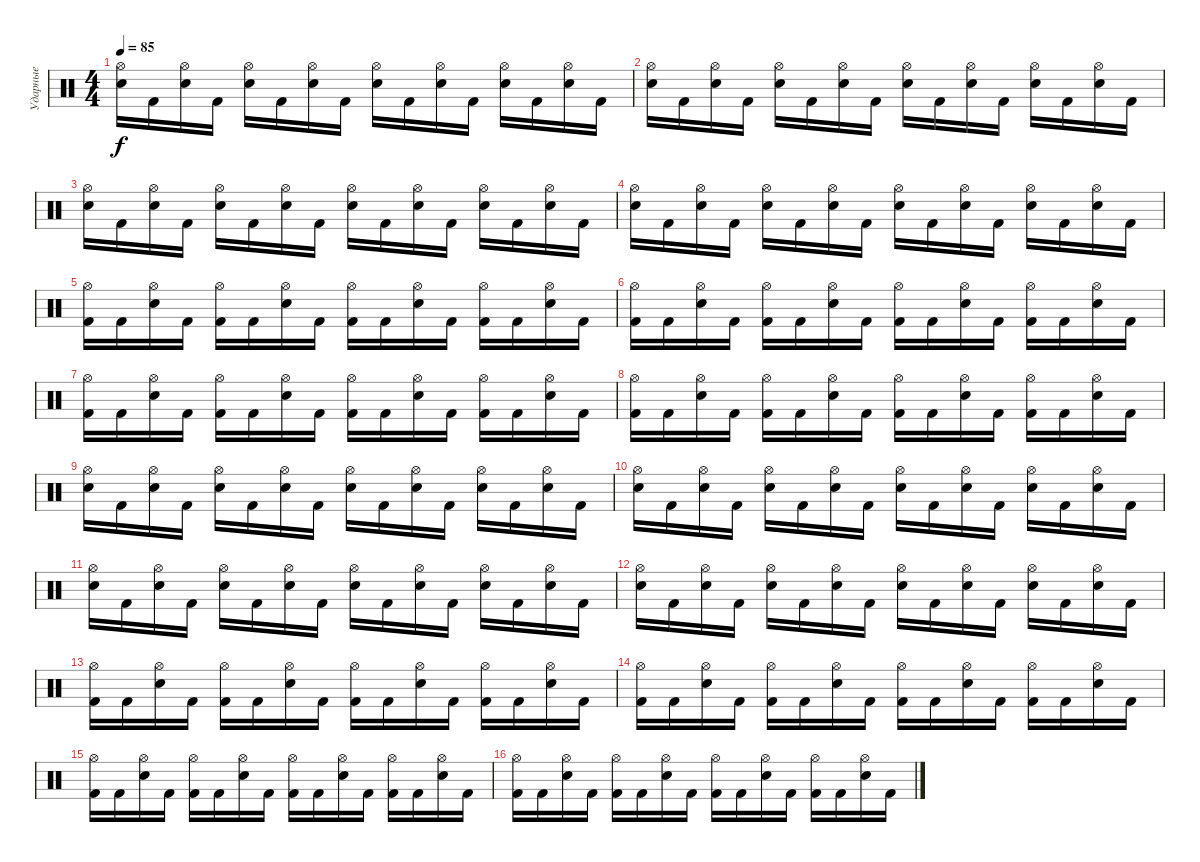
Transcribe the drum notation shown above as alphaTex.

\track ("Ударные" "Ударные") {instrument percussion}
\staff {score}
\articulation defaults
\ts (4 4)
\tempo 85
\clef neutral
\ks c
("Hi-Hat (open)" "Electric Snare (hit)").16{dy f} "Kick (hit) 2".16 ("Hi-Hat (open)" "Electric Snare (hit)").16 "Kick (hit) 2".16 ("Hi-Hat (open)" "Electric Snare (hit)").16 "Kick (hit) 2".16 ("Hi-Hat (open)" "Electric Snare (hit)").16 "Kick (hit) 2".16 ("Hi-Hat (open)" "Electric Snare (hit)").16 "Kick (hit) 2".16 ("Hi-Hat (open)" "Electric Snare (hit)").16 "Kick (hit) 2".16 ("Hi-Hat (open)" "Electric Snare (hit)").16 "Kick (hit) 2".16 ("Hi-Hat (open)" "Electric Snare (hit)").16 "Kick (hit) 2".16 |
("Hi-Hat (open)" "Electric Snare (hit)").16 "Kick (hit) 2".16 ("Hi-Hat (open)" "Electric Snare (hit)").16 "Kick (hit) 2".16 ("Hi-Hat (open)" "Electric Snare (hit)").16 "Kick (hit) 2".16 ("Hi-Hat (open)" "Electric Snare (hit)").16 "Kick (hit) 2".16 ("Hi-Hat (open)" "Electric Snare (hit)").16 "Kick (hit) 2".16 ("Hi-Hat (open)" "Electric Snare (hit)").16 "Kick (hit) 2".16 ("Hi-Hat (open)" "Electric Snare (hit)").16 "Kick (hit) 2".16 ("Hi-Hat (open)" "Electric Snare (hit)").16 "Kick (hit) 2".16 |
("Hi-Hat (open)" "Electric Snare (hit)").16 "Kick (hit) 2".16 ("Hi-Hat (open)" "Electric Snare (hit)").16 "Kick (hit) 2".16 ("Hi-Hat (open)" "Electric Snare (hit)").16 "Kick (hit) 2".16 ("Hi-Hat (open)" "Electric Snare (hit)").16 "Kick (hit) 2".16 ("Hi-Hat (open)" "Electric Snare (hit)").16 "Kick (hit) 2".16 ("Hi-Hat (open)" "Electric Snare (hit)").16 "Kick (hit) 2".16 ("Hi-Hat (open)" "Electric Snare (hit)").16 "Kick (hit) 2".16 ("Hi-Hat (open)" "Electric Snare (hit)").16 "Kick (hit) 2".16 |
("Hi-Hat (open)" "Electric Snare (hit)").16 "Kick (hit) 2".16 ("Hi-Hat (open)" "Electric Snare (hit)").16 "Kick (hit) 2".16 ("Hi-Hat (open)" "Electric Snare (hit)").16 "Kick (hit) 2".16 ("Hi-Hat (open)" "Electric Snare (hit)").16 "Kick (hit) 2".16 ("Hi-Hat (open)" "Electric Snare (hit)").16 "Kick (hit) 2".16 ("Hi-Hat (open)" "Electric Snare (hit)").16 "Kick (hit) 2".16 ("Hi-Hat (open)" "Electric Snare (hit)").16 "Kick (hit) 2".16 ("Hi-Hat (open)" "Electric Snare (hit)").16 "Kick (hit) 2".16 |
("Hi-Hat (open)" "Kick (hit) 2").16 "Kick (hit) 2".16 ("Hi-Hat (open)" "Electric Snare (hit)").16 "Kick (hit) 2".16 ("Hi-Hat (open)" "Kick (hit) 2").16 "Kick (hit) 2".16 ("Hi-Hat (open)" "Electric Snare (hit)").16 "Kick (hit) 2".16 ("Hi-Hat (open)" "Kick (hit) 2").16 "Kick (hit) 2".16 ("Hi-Hat (open)" "Electric Snare (hit)").16 "Kick (hit) 2".16 ("Hi-Hat (open)" "Kick (hit) 2").16 "Kick (hit) 2".16 ("Hi-Hat (open)" "Electric Snare (hit)").16 "Kick (hit) 2".16 |
("Hi-Hat (open)" "Kick (hit) 2").16 "Kick (hit) 2".16 ("Hi-Hat (open)" "Electric Snare (hit)").16 "Kick (hit) 2".16 ("Hi-Hat (open)" "Kick (hit) 2").16 "Kick (hit) 2".16 ("Hi-Hat (open)" "Electric Snare (hit)").16 "Kick (hit) 2".16 ("Hi-Hat (open)" "Kick (hit) 2").16 "Kick (hit) 2".16 ("Hi-Hat (open)" "Electric Snare (hit)").16 "Kick (hit) 2".16 ("Hi-Hat (open)" "Kick (hit) 2").16 "Kick (hit) 2".16 ("Hi-Hat (open)" "Electric Snare (hit)").16 "Kick (hit) 2".16 |
("Hi-Hat (open)" "Kick (hit) 2").16 "Kick (hit) 2".16 ("Hi-Hat (open)" "Electric Snare (hit)").16 "Kick (hit) 2".16 ("Hi-Hat (open)" "Kick (hit) 2").16 "Kick (hit) 2".16 ("Hi-Hat (open)" "Electric Snare (hit)").16 "Kick (hit) 2".16 ("Hi-Hat (open)" "Kick (hit) 2").16 "Kick (hit) 2".16 ("Hi-Hat (open)" "Electric Snare (hit)").16 "Kick (hit) 2".16 ("Hi-Hat (open)" "Kick (hit) 2").16 "Kick (hit) 2".16 ("Hi-Hat (open)" "Electric Snare (hit)").16 "Kick (hit) 2".16 |
("Hi-Hat (open)" "Kick (hit) 2").16 "Kick (hit) 2".16 ("Hi-Hat (open)" "Electric Snare (hit)").16 "Kick (hit) 2".16 ("Hi-Hat (open)" "Kick (hit) 2").16 "Kick (hit) 2".16 ("Hi-Hat (open)" "Electric Snare (hit)").16 "Kick (hit) 2".16 ("Hi-Hat (open)" "Kick (hit) 2").16 "Kick (hit) 2".16 ("Hi-Hat (open)" "Electric Snare (hit)").16 "Kick (hit) 2".16 ("Hi-Hat (open)" "Kick (hit) 2").16 "Kick (hit) 2".16 ("Hi-Hat (open)" "Electric Snare (hit)").16 "Kick (hit) 2".16 |
("Hi-Hat (open)" "Electric Snare (hit)").16 "Kick (hit) 2".16 ("Hi-Hat (open)" "Electric Snare (hit)").16 "Kick (hit) 2".16 ("Hi-Hat (open)" "Electric Snare (hit)").16 "Kick (hit) 2".16 ("Hi-Hat (open)" "Electric Snare (hit)").16 "Kick (hit) 2".16 ("Hi-Hat (open)" "Electric Snare (hit)").16 "Kick (hit) 2".16 ("Hi-Hat (open)" "Electric Snare (hit)").16 "Kick (hit) 2".16 ("Hi-Hat (open)" "Electric Snare (hit)").16 "Kick (hit) 2".16 ("Hi-Hat (open)" "Electric Snare (hit)").16 "Kick (hit) 2".16 |
("Hi-Hat (open)" "Electric Snare (hit)").16 "Kick (hit) 2".16 ("Hi-Hat (open)" "Electric Snare (hit)").16 "Kick (hit) 2".16 ("Hi-Hat (open)" "Electric Snare (hit)").16 "Kick (hit) 2".16 ("Hi-Hat (open)" "Electric Snare (hit)").16 "Kick (hit) 2".16 ("Hi-Hat (open)" "Electric Snare (hit)").16 "Kick (hit) 2".16 ("Hi-Hat (open)" "Electric Snare (hit)").16 "Kick (hit) 2".16 ("Hi-Hat (open)" "Electric Snare (hit)").16 "Kick (hit) 2".16 ("Hi-Hat (open)" "Electric Snare (hit)").16 "Kick (hit) 2".16 |
("Hi-Hat (open)" "Electric Snare (hit)").16 "Kick (hit) 2".16 ("Hi-Hat (open)" "Electric Snare (hit)").16 "Kick (hit) 2".16 ("Hi-Hat (open)" "Electric Snare (hit)").16 "Kick (hit) 2".16 ("Hi-Hat (open)" "Electric Snare (hit)").16 "Kick (hit) 2".16 ("Hi-Hat (open)" "Electric Snare (hit)").16 "Kick (hit) 2".16 ("Hi-Hat (open)" "Electric Snare (hit)").16 "Kick (hit) 2".16 ("Hi-Hat (open)" "Electric Snare (hit)").16 "Kick (hit) 2".16 ("Hi-Hat (open)" "Electric Snare (hit)").16 "Kick (hit) 2".16 |
("Hi-Hat (open)" "Electric Snare (hit)").16 "Kick (hit) 2".16 ("Hi-Hat (open)" "Electric Snare (hit)").16 "Kick (hit) 2".16 ("Hi-Hat (open)" "Electric Snare (hit)").16 "Kick (hit) 2".16 ("Hi-Hat (open)" "Electric Snare (hit)").16 "Kick (hit) 2".16 ("Hi-Hat (open)" "Electric Snare (hit)").16 "Kick (hit) 2".16 ("Hi-Hat (open)" "Electric Snare (hit)").16 "Kick (hit) 2".16 ("Hi-Hat (open)" "Electric Snare (hit)").16 "Kick (hit) 2".16 ("Hi-Hat (open)" "Electric Snare (hit)").16 "Kick (hit) 2".16 |
("Hi-Hat (open)" "Kick (hit) 2").16 "Kick (hit) 2".16 ("Hi-Hat (open)" "Electric Snare (hit)").16 "Kick (hit) 2".16 ("Hi-Hat (open)" "Kick (hit) 2").16 "Kick (hit) 2".16 ("Hi-Hat (open)" "Electric Snare (hit)").16 "Kick (hit) 2".16 ("Hi-Hat (open)" "Kick (hit) 2").16 "Kick (hit) 2".16 ("Hi-Hat (open)" "Electric Snare (hit)").16 "Kick (hit) 2".16 ("Hi-Hat (open)" "Kick (hit) 2").16 "Kick (hit) 2".16 ("Hi-Hat (open)" "Electric Snare (hit)").16 "Kick (hit) 2".16 |
("Hi-Hat (open)" "Kick (hit) 2").16 "Kick (hit) 2".16 ("Hi-Hat (open)" "Electric Snare (hit)").16 "Kick (hit) 2".16 ("Hi-Hat (open)" "Kick (hit) 2").16 "Kick (hit) 2".16 ("Hi-Hat (open)" "Electric Snare (hit)").16 "Kick (hit) 2".16 ("Hi-Hat (open)" "Kick (hit) 2").16 "Kick (hit) 2".16 ("Hi-Hat (open)" "Electric Snare (hit)").16 "Kick (hit) 2".16 ("Hi-Hat (open)" "Kick (hit) 2").16 "Kick (hit) 2".16 ("Hi-Hat (open)" "Electric Snare (hit)").16 "Kick (hit) 2".16 |
("Hi-Hat (open)" "Kick (hit) 2").16 "Kick (hit) 2".16 ("Hi-Hat (open)" "Electric Snare (hit)").16 "Kick (hit) 2".16 ("Hi-Hat (open)" "Kick (hit) 2").16 "Kick (hit) 2".16 ("Hi-Hat (open)" "Electric Snare (hit)").16 "Kick (hit) 2".16 ("Hi-Hat (open)" "Kick (hit) 2").16 "Kick (hit) 2".16 ("Hi-Hat (open)" "Electric Snare (hit)").16 "Kick (hit) 2".16 ("Hi-Hat (open)" "Kick (hit) 2").16 "Kick (hit) 2".16 ("Hi-Hat (open)" "Electric Snare (hit)").16 "Kick (hit) 2".16 |
("Hi-Hat (open)" "Kick (hit) 2").16 "Kick (hit) 2".16 ("Hi-Hat (open)" "Electric Snare (hit)").16 "Kick (hit) 2".16 ("Hi-Hat (open)" "Kick (hit) 2").16 "Kick (hit) 2".16 ("Hi-Hat (open)" "Electric Snare (hit)").16 "Kick (hit) 2".16 ("Hi-Hat (open)" "Kick (hit) 2").16 "Kick (hit) 2".16 ("Hi-Hat (open)" "Electric Snare (hit)").16 "Kick (hit) 2".16 ("Hi-Hat (open)" "Kick (hit) 2").16 "Kick (hit) 2".16 ("Hi-Hat (open)" "Electric Snare (hit)").16 "Kick (hit) 2".16
